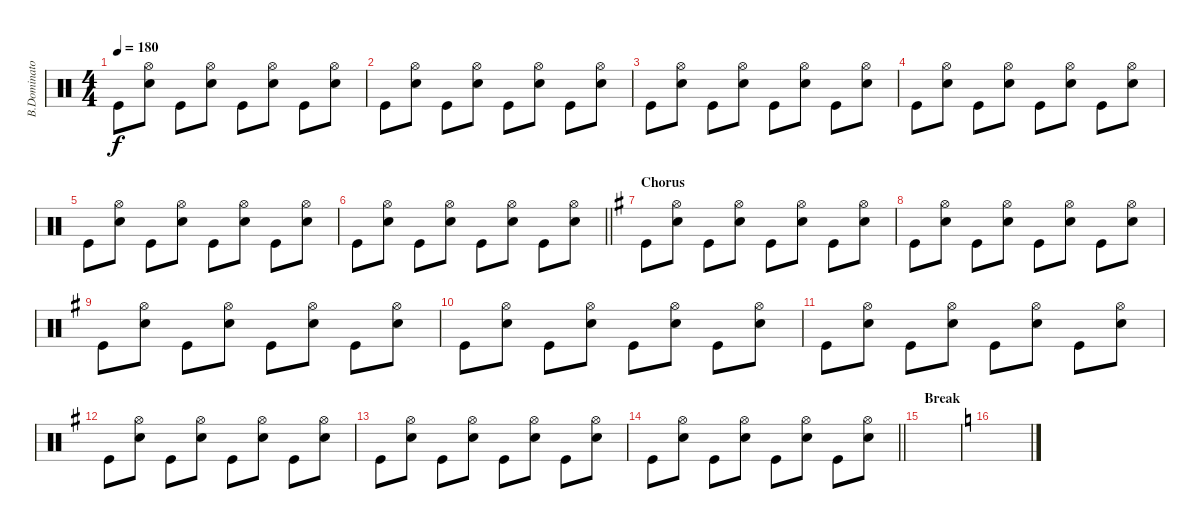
\track ("B.Dominator" "B.Dominato") {instrument percussion}
\staff {score}
\articulation defaults
\ts (4 4)
\tempo 180
\clef neutral
\ks c "Kick (hit)".8{dy f}
("Hi-Hat (open)" "Snare (hit) 2").8 "Kick (hit)".8 ("Hi-Hat (open)" "Snare (hit) 2").8 "Kick (hit)".8 ("Hi-Hat (open)" "Snare (hit) 2").8 "Kick (hit)".8 ("Hi-Hat (open)" "Snare (hit) 2").8 |
"Kick (hit)".8 ("Hi-Hat (open)" "Snare (hit) 2").8 "Kick (hit)".8 ("Hi-Hat (open)" "Snare (hit) 2").8 "Kick (hit)".8 ("Hi-Hat (open)" "Snare (hit) 2").8 "Kick (hit)".8 ("Hi-Hat (open)" "Snare (hit) 2").8 |
"Kick (hit)".8 ("Hi-Hat (open)" "Snare (hit) 2").8 "Kick (hit)".8 ("Hi-Hat (open)" "Snare (hit) 2").8 "Kick (hit)".8 ("Hi-Hat (open)" "Snare (hit) 2").8 "Kick (hit)".8 ("Hi-Hat (open)" "Snare (hit) 2").8 |
"Kick (hit)".8 ("Hi-Hat (open)" "Snare (hit) 2").8 "Kick (hit)".8 ("Hi-Hat (open)" "Snare (hit) 2").8 "Kick (hit)".8 ("Hi-Hat (open)" "Snare (hit) 2").8 "Kick (hit)".8 ("Hi-Hat (open)" "Snare (hit) 2").8 |
"Kick (hit)".8 ("Hi-Hat (open)" "Snare (hit) 2").8 "Kick (hit)".8 ("Hi-Hat (open)" "Snare (hit) 2").8 "Kick (hit)".8 ("Hi-Hat (open)" "Snare (hit) 2").8 "Kick (hit)".8 ("Hi-Hat (open)" "Snare (hit) 2").8 |
\barLineRight lightlight "Kick (hit)".8
("Hi-Hat (open)" "Snare (hit) 2").8 "Kick (hit)".8 ("Hi-Hat (open)" "Snare (hit) 2").8 "Kick (hit)".8 ("Hi-Hat (open)" "Snare (hit) 2").8 "Kick (hit)".8 ("Hi-Hat (open)" "Snare (hit) 2").8 |
\section ("" "Chorus")
\ks g "Kick (hit)".8
("Hi-Hat (open)" "Snare (hit) 2").8 "Kick (hit)".8 ("Hi-Hat (open)" "Snare (hit) 2").8 "Kick (hit)".8 ("Hi-Hat (open)" "Snare (hit) 2").8 "Kick (hit)".8 ("Hi-Hat (open)" "Snare (hit) 2").8 |
"Kick (hit)".8 ("Hi-Hat (open)" "Snare (hit) 2").8 "Kick (hit)".8 ("Hi-Hat (open)" "Snare (hit) 2").8 "Kick (hit)".8 ("Hi-Hat (open)" "Snare (hit) 2").8 "Kick (hit)".8 ("Hi-Hat (open)" "Snare (hit) 2").8 |
"Kick (hit)".8 ("Hi-Hat (open)" "Snare (hit) 2").8 "Kick (hit)".8 ("Hi-Hat (open)" "Snare (hit) 2").8 "Kick (hit)".8 ("Hi-Hat (open)" "Snare (hit) 2").8 "Kick (hit)".8 ("Hi-Hat (open)" "Snare (hit) 2").8 |
"Kick (hit)".8 ("Hi-Hat (open)" "Snare (hit) 2").8 "Kick (hit)".8 ("Hi-Hat (open)" "Snare (hit) 2").8 "Kick (hit)".8 ("Hi-Hat (open)" "Snare (hit) 2").8 "Kick (hit)".8 ("Hi-Hat (open)" "Snare (hit) 2").8 |
"Kick (hit)".8 ("Hi-Hat (open)" "Snare (hit) 2").8 "Kick (hit)".8 ("Hi-Hat (open)" "Snare (hit) 2").8 "Kick (hit)".8 ("Hi-Hat (open)" "Snare (hit) 2").8 "Kick (hit)".8 ("Hi-Hat (open)" "Snare (hit) 2").8 |
"Kick (hit)".8 ("Hi-Hat (open)" "Snare (hit) 2").8 "Kick (hit)".8 ("Hi-Hat (open)" "Snare (hit) 2").8 "Kick (hit)".8 ("Hi-Hat (open)" "Snare (hit) 2").8 "Kick (hit)".8 ("Hi-Hat (open)" "Snare (hit) 2").8 |
"Kick (hit)".8 ("Hi-Hat (open)" "Snare (hit) 2").8 "Kick (hit)".8 ("Hi-Hat (open)" "Snare (hit) 2").8 "Kick (hit)".8 ("Hi-Hat (open)" "Snare (hit) 2").8 "Kick (hit)".8 ("Hi-Hat (open)" "Snare (hit) 2").8 |
\barLineRight lightlight "Kick (hit)".8
("Hi-Hat (open)" "Snare (hit) 2").8 "Kick (hit)".8 ("Hi-Hat (open)" "Snare (hit) 2").8 "Kick (hit)".8 ("Hi-Hat (open)" "Snare (hit) 2").8 "Kick (hit)".8 ("Hi-Hat (open)" "Snare (hit) 2").8 |
\section ("" "Break")
|
\ks c
